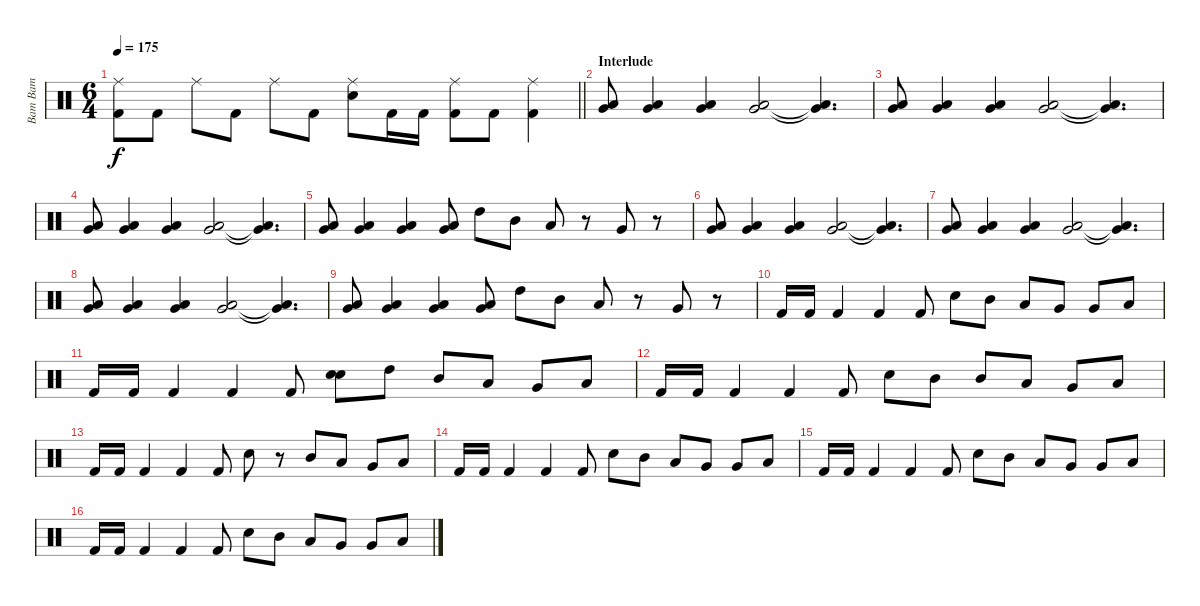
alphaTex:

\track ("Bam Bam" "Bam Bam") {instrument percussion}
\staff {score}
\articulation defaults
\ts (6 4)
\tempo 175
\clef neutral
\barLineRight lightlight
\ks c
("Ride (middle)" "Kick (hit) 2").8{dy f} "Kick (hit) 2".8 "Ride (middle)".8 "Kick (hit) 2".8 "Ride (middle)".8 "Kick (hit) 2".8 ("Ride (middle)" "Electric Snare (hit)").8 "Kick (hit) 2".16 "Kick (hit) 2".16 ("Ride (middle)" "Kick (hit) 2").8 "Kick (hit) 2".8 ("Ride (middle)" "Kick (hit) 2").4 |
\section ("" "Interlude")
("Low Floor Tom (hit)" "Very Low Tom (hit)").8 ("Low Floor Tom (hit)" "Very Low Tom (hit)").4 ("Low Floor Tom (hit)" "Very Low Tom (hit)").4 ("Low Floor Tom (hit)" "Very Low Tom (hit)").2 ("Low Floor Tom (hit)"{t} "Very Low Tom (hit)"{t}).4{d} |
("Low Floor Tom (hit)" "Very Low Tom (hit)").8 ("Low Floor Tom (hit)" "Very Low Tom (hit)").4 ("Low Floor Tom (hit)" "Very Low Tom (hit)").4 ("Low Floor Tom (hit)" "Very Low Tom (hit)").2 ("Low Floor Tom (hit)"{t} "Very Low Tom (hit)"{t}).4{d} |
("Low Floor Tom (hit)" "Very Low Tom (hit)").8 ("Low Floor Tom (hit)" "Very Low Tom (hit)").4 ("Low Floor Tom (hit)" "Very Low Tom (hit)").4 ("Low Floor Tom (hit)" "Very Low Tom (hit)").2 ("Low Floor Tom (hit)"{t} "Very Low Tom (hit)"{t}).4{d} |
("Low Floor Tom (hit)" "Very Low Tom (hit)").8 ("Low Floor Tom (hit)" "Very Low Tom (hit)").4 ("Low Floor Tom (hit)" "Very Low Tom (hit)").4 ("Low Floor Tom (hit)" "Very Low Tom (hit)").8 "High Tom (hit)".8 "Mid Tom (hit)".8 "Low Tom (hit)".8 r.8 "Very Low Tom (hit)".8 r.8 |
("Low Floor Tom (hit)" "Very Low Tom (hit)").8 ("Low Floor Tom (hit)" "Very Low Tom (hit)").4 ("Low Floor Tom (hit)" "Very Low Tom (hit)").4 ("Low Floor Tom (hit)" "Very Low Tom (hit)").2 ("Low Floor Tom (hit)"{t} "Very Low Tom (hit)"{t}).4{d} |
("Low Floor Tom (hit)" "Very Low Tom (hit)").8 ("Low Floor Tom (hit)" "Very Low Tom (hit)").4 ("Low Floor Tom (hit)" "Very Low Tom (hit)").4 ("Low Floor Tom (hit)" "Very Low Tom (hit)").2 ("Low Floor Tom (hit)"{t} "Very Low Tom (hit)"{t}).4{d} |
("Low Floor Tom (hit)" "Very Low Tom (hit)").8 ("Low Floor Tom (hit)" "Very Low Tom (hit)").4 ("Low Floor Tom (hit)" "Very Low Tom (hit)").4 ("Low Floor Tom (hit)" "Very Low Tom (hit)").2 ("Low Floor Tom (hit)"{t} "Very Low Tom (hit)"{t}).4{d} |
("Low Floor Tom (hit)" "Very Low Tom (hit)").8 ("Low Floor Tom (hit)" "Very Low Tom (hit)").4 ("Low Floor Tom (hit)" "Very Low Tom (hit)").4 ("Low Floor Tom (hit)" "Very Low Tom (hit)").8 "High Tom (hit)".8 "Mid Tom (hit)".8 "Low Tom (hit)".8 r.8 "Very Low Tom (hit)".8 r.8 |
"Kick (hit) 2".16 "Kick (hit) 2".16 "Kick (hit) 2".4 "Kick (hit) 2".4 "Kick (hit) 2".8 "Electric Snare (hit)".8 "Mid Tom (hit)".8 "Low Tom (hit)".8 "Very Low Tom (hit)".8 "Very Low Tom (hit)".8 "Low Floor Tom (hit)".8 |
"Kick (hit) 2".16 "Kick (hit) 2".16 "Kick (hit) 2".4 "Kick (hit) 2".4 "Kick (hit) 2".8 ("Electric Snare (hit)" "Electric Snare (hit)").8{bd 240} "High Tom (hit)".8 "Mid Tom (hit)".8 "Low Tom (hit)".8 "Very Low Tom (hit)".8 "Low Floor Tom (hit)".8 |
"Kick (hit) 2".16 "Kick (hit) 2".16 "Kick (hit) 2".4 "Kick (hit) 2".4 "Kick (hit) 2".8 "Electric Snare (hit)".8 "Mid Tom (hit)".8 "Mid Tom (hit)".8 "Low Tom (hit)".8 "Very Low Tom (hit)".8 "Low Floor Tom (hit)".8 |
"Kick (hit) 2".16 "Kick (hit) 2".16 "Kick (hit) 2".4 "Kick (hit) 2".4 "Kick (hit) 2".8 "Electric Snare (hit)".8 r.8 "Mid Tom (hit)".8 "Low Tom (hit)".8 "Very Low Tom (hit)".8 "Low Floor Tom (hit)".8 |
"Kick (hit) 2".16 "Kick (hit) 2".16 "Kick (hit) 2".4 "Kick (hit) 2".4 "Kick (hit) 2".8 "Electric Snare (hit)".8 "Mid Tom (hit)".8 "Low Tom (hit)".8 "Very Low Tom (hit)".8 "Very Low Tom (hit)".8 "Low Floor Tom (hit)".8 |
"Kick (hit) 2".16 "Kick (hit) 2".16 "Kick (hit) 2".4 "Kick (hit) 2".4 "Kick (hit) 2".8 "Electric Snare (hit)".8 "Mid Tom (hit)".8 "Low Tom (hit)".8 "Very Low Tom (hit)".8 "Very Low Tom (hit)".8 "Low Floor Tom (hit)".8 |
"Kick (hit) 2".16 "Kick (hit) 2".16 "Kick (hit) 2".4 "Kick (hit) 2".4 "Kick (hit) 2".8 "Electric Snare (hit)".8 "Mid Tom (hit)".8 "Low Tom (hit)".8 "Very Low Tom (hit)".8 "Very Low Tom (hit)".8 "Low Floor Tom (hit)".8
